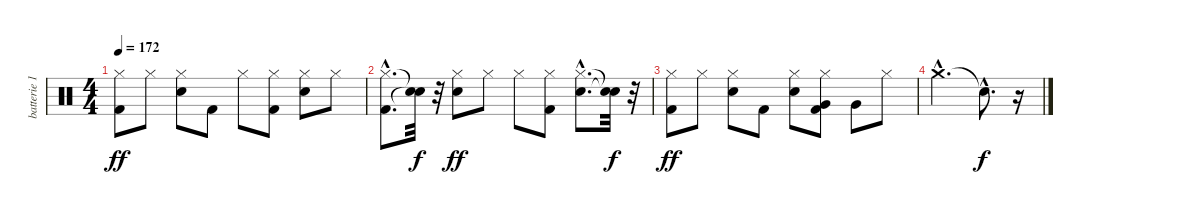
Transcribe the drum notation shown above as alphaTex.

\track ("batterie 1" "batterie 1") {instrument percussion}
\staff {score}
\articulation defaults
\ts (4 4)
\tempo 172
\clef neutral
\ks c
("Kick (hit) 2" "Hi-Hat (closed)").8{dy ff} "Hi-Hat (closed)".8 ("Electric Snare (hit)" "Hi-Hat (closed)").8 "Kick (hit) 2".8 "Hi-Hat (closed)".8 ("Kick (hit) 2" "Hi-Hat (closed)").8 ("Electric Snare (hit)" "Hi-Hat (closed)").8 "Hi-Hat (closed)".8 |
("Kick (hit) 2"{hac} "Hi-Hat (closed)"{hac}).8{d} ("Snare (hit)"{t} "Snare (hit)"{t}).32{dy f} r.32 ("Electric Snare (hit)" "Hi-Hat (closed)").8{dy ff} "Hi-Hat (closed)".8 "Hi-Hat (closed)".8 ("Kick (hit) 2" "Hi-Hat (closed)").8 ("Electric Snare (hit)"{hac} "Hi-Hat (closed)"{hac}).8{d} ("Snare (hit)"{t} "Snare (hit)"{t}).32{dy f} r.32 |
("Kick (hit) 2" "Hi-Hat (closed)").8{dy ff} "Hi-Hat (closed)".8 ("Electric Snare (hit)" "Hi-Hat (closed)").8 "Kick (hit) 2".8 ("Electric Snare (hit)" "Hi-Hat (closed)").8 ("Kick (hit) 2" "Hi-Hat (closed)" "Very Low Tom (hit)").8 "Very Low Tom (hit)".8 "Hi-Hat (closed)".8 |
"Crash medium (hit)"{hac}.2{d} "Snare (hit)"{hac t}.8{d dy f} r.16
